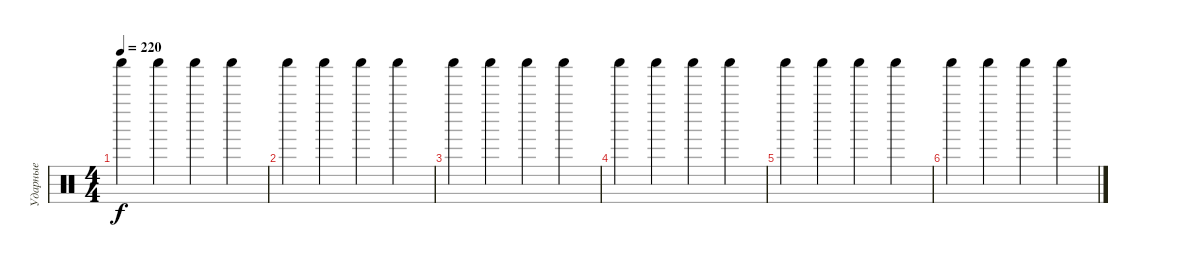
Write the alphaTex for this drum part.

\track ("Ударные" "Ударные") {instrument percussion}
\staff {score}
\articulation defaults
\ts (4 4)
\tempo 220
\clef neutral
\ks c "Shaker (hit)".4{dy f} "Shaker (hit)".4 "Shaker (hit)".4 "Shaker (hit)".4
|
"Shaker (hit)".4 "Shaker (hit)".4 "Shaker (hit)".4 "Shaker (hit)".4 |
"Shaker (hit)".4 "Shaker (hit)".4 "Shaker (hit)".4 "Shaker (hit)".4 |
"Shaker (hit)".4 "Shaker (hit)".4 "Shaker (hit)".4 "Shaker (hit)".4 |
"Shaker (hit)".4 "Shaker (hit)".4 "Shaker (hit)".4 "Shaker (hit)".4 |
"Shaker (hit)".4 "Shaker (hit)".4 "Shaker (hit)".4 "Shaker (hit)".4
